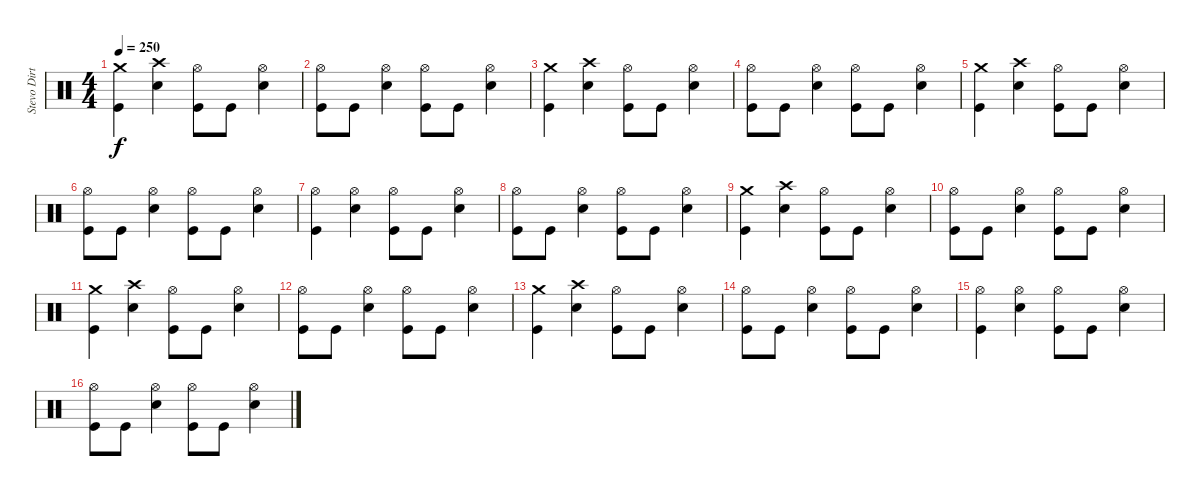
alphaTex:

\track ("Stevo Dirty Poo" "Stevo Dirt") {instrument percussion}
\staff {score}
\articulation defaults
\ts (4 4)
\tempo 250
\clef neutral
\ks c
("Crash medium (hit)" "Kick (hit)").4{dy f} ("Crash high (hit)" "Snare (hit) 2").4 ("Hi-Hat (open)" "Kick (hit)").8 "Kick (hit)".8 ("Hi-Hat (open)" "Snare (hit) 2").4 |
("Hi-Hat (open)" "Kick (hit)").8 "Kick (hit)".8 ("Hi-Hat (open)" "Snare (hit) 2").4 ("Hi-Hat (open)" "Kick (hit)").8 "Kick (hit)".8 ("Hi-Hat (open)" "Snare (hit) 2").4 |
("Crash medium (hit)" "Kick (hit)").4 ("Crash high (hit)" "Snare (hit) 2").4 ("Hi-Hat (open)" "Kick (hit)").8 "Kick (hit)".8 ("Hi-Hat (open)" "Snare (hit) 2").4 |
("Hi-Hat (open)" "Kick (hit)").8 "Kick (hit)".8 ("Hi-Hat (open)" "Snare (hit) 2").4 ("Hi-Hat (open)" "Kick (hit)").8 "Kick (hit)".8 ("Hi-Hat (open)" "Snare (hit) 2").4 |
("Crash medium (hit)" "Kick (hit)").4 ("Crash high (hit)" "Snare (hit) 2").4 ("Hi-Hat (open)" "Kick (hit)").8 "Kick (hit)".8 ("Hi-Hat (open)" "Snare (hit) 2").4 |
("Hi-Hat (open)" "Kick (hit)").8 "Kick (hit)".8 ("Hi-Hat (open)" "Snare (hit) 2").4 ("Hi-Hat (open)" "Kick (hit)").8 "Kick (hit)".8 ("Hi-Hat (open)" "Snare (hit) 2").4 |
("Hi-Hat (open)" "Kick (hit)").4 ("Hi-Hat (open)" "Snare (hit) 2").4 ("Hi-Hat (open)" "Kick (hit)").8 "Kick (hit)".8 ("Hi-Hat (open)" "Snare (hit) 2").4 |
("Hi-Hat (open)" "Kick (hit)").8 "Kick (hit)".8 ("Hi-Hat (open)" "Snare (hit) 2").4 ("Hi-Hat (open)" "Kick (hit)").8 "Kick (hit)".8 ("Hi-Hat (open)" "Snare (hit) 2").4 |
("Crash medium (hit)" "Kick (hit)").4 ("Crash high (hit)" "Snare (hit) 2").4 ("Hi-Hat (open)" "Kick (hit)").8 "Kick (hit)".8 ("Hi-Hat (open)" "Snare (hit) 2").4 |
("Hi-Hat (open)" "Kick (hit)").8 "Kick (hit)".8 ("Hi-Hat (open)" "Snare (hit) 2").4 ("Hi-Hat (open)" "Kick (hit)").8 "Kick (hit)".8 ("Hi-Hat (open)" "Snare (hit) 2").4 |
("Crash medium (hit)" "Kick (hit)").4 ("Crash high (hit)" "Snare (hit) 2").4 ("Hi-Hat (open)" "Kick (hit)").8 "Kick (hit)".8 ("Hi-Hat (open)" "Snare (hit) 2").4 |
("Hi-Hat (open)" "Kick (hit)").8 "Kick (hit)".8 ("Hi-Hat (open)" "Snare (hit) 2").4 ("Hi-Hat (open)" "Kick (hit)").8 "Kick (hit)".8 ("Hi-Hat (open)" "Snare (hit) 2").4 |
("Crash medium (hit)" "Kick (hit)").4 ("Crash high (hit)" "Snare (hit) 2").4 ("Hi-Hat (open)" "Kick (hit)").8 "Kick (hit)".8 ("Hi-Hat (open)" "Snare (hit) 2").4 |
("Hi-Hat (open)" "Kick (hit)").8 "Kick (hit)".8 ("Hi-Hat (open)" "Snare (hit) 2").4 ("Hi-Hat (open)" "Kick (hit)").8 "Kick (hit)".8 ("Hi-Hat (open)" "Snare (hit) 2").4 |
("Hi-Hat (open)" "Kick (hit)").4 ("Hi-Hat (open)" "Snare (hit) 2").4 ("Hi-Hat (open)" "Kick (hit)").8 "Kick (hit)".8 ("Hi-Hat (open)" "Snare (hit) 2").4 |
("Hi-Hat (open)" "Kick (hit)").8 "Kick (hit)".8 ("Hi-Hat (open)" "Snare (hit) 2").4 ("Hi-Hat (open)" "Kick (hit)").8 "Kick (hit)".8 ("Hi-Hat (open)" "Snare (hit) 2").4
